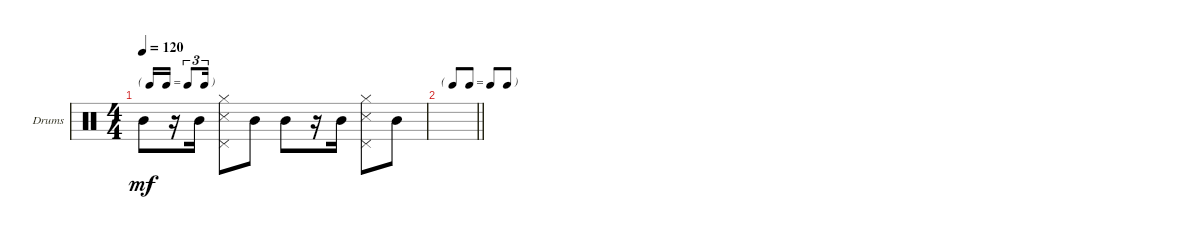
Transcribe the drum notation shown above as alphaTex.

\defaultSystemsLayout 4
\bracketExtendMode groupsimilarinstruments
\firstSystemTrackNameOrientation horizontal
\otherSystemsTrackNameOrientation horizontal
\track ("Drumkit" "Drums") {instrument percussion}
\staff {score}
\articulation defaults
\ts (4 4)
\tf triplet16th
\tempo 120
\clef neutral
\ks c "Mid Tom (hit)".8{dy mf}
r.16 "Mid Tom (hit)".16 ("Pedal Hi-Hat (hit)" "Snare (side stick) 3" "Hi-Hat (closed)").8 "Mid Tom (hit)".8 "Mid Tom (hit)".8 r.16 "Mid Tom (hit)".16 ("Pedal Hi-Hat (hit)" "Snare (side stick) 3" "Hi-Hat (closed)").8 "Mid Tom (hit)".8 |
\tf none
\barLineRight lightlight
